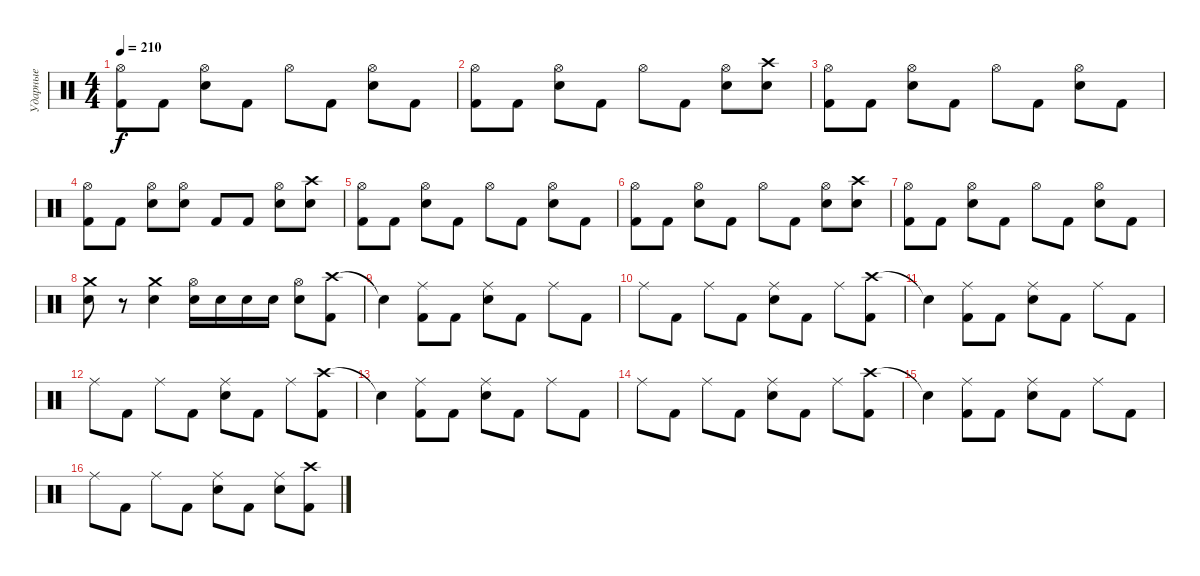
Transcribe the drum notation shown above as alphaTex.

\track ("Ударные" "Ударные") {instrument percussion}
\staff {score}
\articulation defaults
\ts (4 4)
\tempo 210
\clef neutral
\ks c
("Hi-Hat (open)" "Kick (hit) 2").8{dy f} "Kick (hit) 2".8 ("Hi-Hat (open)" "Snare (hit) 2").8 "Kick (hit) 2".8 "Hi-Hat (open)".8 "Kick (hit) 2".8 ("Hi-Hat (open)" "Snare (hit) 2").8 "Kick (hit) 2".8 |
("Hi-Hat (open)" "Kick (hit) 2").8 "Kick (hit) 2".8 ("Hi-Hat (open)" "Snare (hit) 2").8 "Kick (hit) 2".8 "Hi-Hat (open)".8 "Kick (hit) 2".8 ("Hi-Hat (open)" "Snare (hit) 2").8 ("Crash high (hit)" "Snare (hit) 2").8 |
("Hi-Hat (open)" "Kick (hit) 2").8 "Kick (hit) 2".8 ("Hi-Hat (open)" "Snare (hit) 2").8 "Kick (hit) 2".8 "Hi-Hat (open)".8 "Kick (hit) 2".8 ("Hi-Hat (open)" "Snare (hit) 2").8 "Kick (hit) 2".8 |
("Hi-Hat (open)" "Kick (hit) 2").8 "Kick (hit) 2".8 ("Hi-Hat (open)" "Snare (hit) 2").8 ("Hi-Hat (open)" "Snare (hit) 2").8 "Kick (hit) 2".8 "Kick (hit) 2".8 ("Hi-Hat (open)" "Snare (hit) 2").8 ("Crash high (hit)" "Snare (hit) 2").8 |
("Hi-Hat (open)" "Kick (hit) 2").8 "Kick (hit) 2".8 ("Hi-Hat (open)" "Snare (hit) 2").8 "Kick (hit) 2".8 "Hi-Hat (open)".8 "Kick (hit) 2".8 ("Hi-Hat (open)" "Snare (hit) 2").8 "Kick (hit) 2".8 |
("Hi-Hat (open)" "Kick (hit) 2").8 "Kick (hit) 2".8 ("Hi-Hat (open)" "Snare (hit) 2").8 "Kick (hit) 2".8 "Hi-Hat (open)".8 "Kick (hit) 2".8 ("Hi-Hat (open)" "Snare (hit) 2").8 ("Crash high (hit)" "Snare (hit) 2").8 |
("Hi-Hat (open)" "Kick (hit) 2").8 "Kick (hit) 2".8 ("Hi-Hat (open)" "Snare (hit) 2").8 "Kick (hit) 2".8 "Hi-Hat (open)".8 "Kick (hit) 2".8 ("Hi-Hat (open)" "Snare (hit) 2").8 "Kick (hit) 2".8 |
("Crash medium (hit)" "Snare (hit) 2").8 r.8 ("Crash medium (hit)" "Snare (hit) 2").4 ("Hi-Hat (open)" "Snare (hit) 2").16 "Snare (hit) 2".16 "Snare (hit) 2".16 "Snare (hit) 2".16 ("Hi-Hat (open)" "Snare (hit) 2").8 ("Crash high (hit)" "Kick (hit) 2").8 |
"Snare (hit)"{t}.4 ("Ride (middle)" "Kick (hit) 2").8 "Kick (hit) 2".8 ("Ride (middle)" "Snare (hit) 2").8 "Kick (hit) 2".8 "Ride (middle)".8 "Kick (hit) 2".8 |
"Ride (middle)".8 "Kick (hit) 2".8 "Ride (middle)".8 "Kick (hit) 2".8 ("Ride (middle)" "Snare (hit) 2").8 "Kick (hit) 2".8 "Ride (middle)".8 ("Crash high (hit)" "Kick (hit) 2").8 |
"Snare (hit)"{t}.4 ("Ride (middle)" "Kick (hit) 2").8 "Kick (hit) 2".8 ("Ride (middle)" "Snare (hit) 2").8 "Kick (hit) 2".8 "Ride (middle)".8 "Kick (hit) 2".8 |
"Ride (middle)".8 "Kick (hit) 2".8 "Ride (middle)".8 "Kick (hit) 2".8 ("Ride (middle)" "Snare (hit) 2").8 "Kick (hit) 2".8 "Ride (middle)".8 ("Crash high (hit)" "Kick (hit) 2").8 |
"Snare (hit)"{t}.4 ("Ride (middle)" "Kick (hit) 2").8 "Kick (hit) 2".8 ("Ride (middle)" "Snare (hit) 2").8 "Kick (hit) 2".8 "Ride (middle)".8 "Kick (hit) 2".8 |
"Ride (middle)".8 "Kick (hit) 2".8 "Ride (middle)".8 "Kick (hit) 2".8 ("Ride (middle)" "Snare (hit) 2").8 "Kick (hit) 2".8 "Ride (middle)".8 ("Crash high (hit)" "Kick (hit) 2").8 |
"Snare (hit)"{t}.4 ("Ride (middle)" "Kick (hit) 2").8 "Kick (hit) 2".8 ("Ride (middle)" "Snare (hit) 2").8 "Kick (hit) 2".8 "Ride (middle)".8 "Kick (hit) 2".8 |
"Ride (middle)".8 "Kick (hit) 2".8 "Ride (middle)".8 "Kick (hit) 2".8 ("Ride (middle)" "Snare (hit) 2").8 "Kick (hit) 2".8 ("Ride (middle)" "Snare (hit) 2").8 ("Crash high (hit)" "Kick (hit) 2").8
